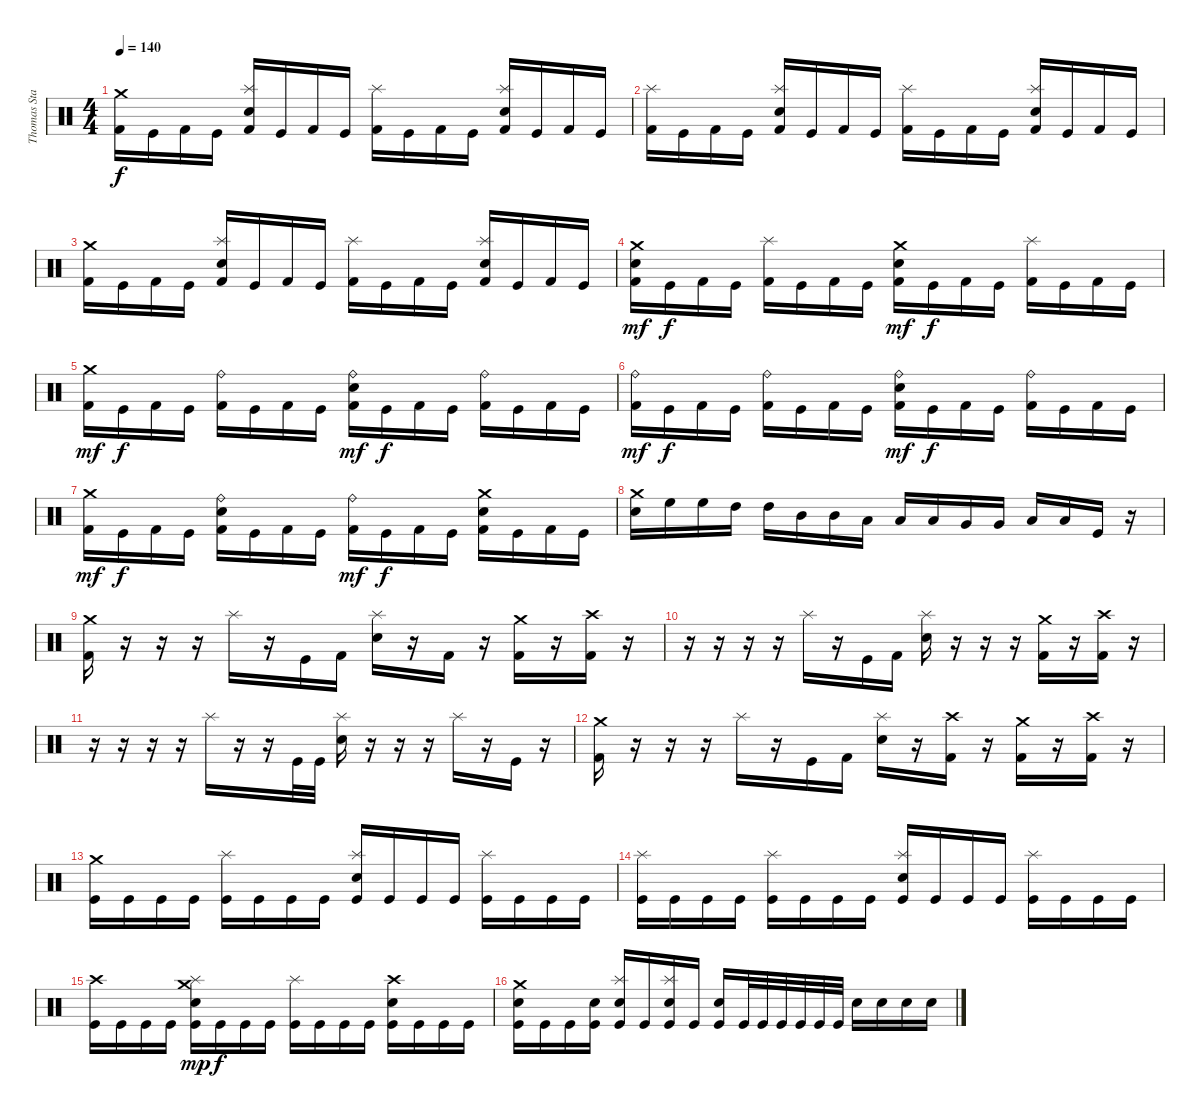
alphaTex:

\track ("Thomas Stauch" "Thomas Sta") {instrument percussion}
\staff {score}
\articulation defaults
\ts (4 4)
\tempo 140
\clef neutral
\ks c
("Crash medium (hit)" "Kick (hit) 2").16{dy f} "Kick (hit)".16 "Kick (hit) 2".16 "Kick (hit)".16 ("Splash (hit)" "Electric Snare (hit)" "Kick (hit) 2").16 "Kick (hit)".16 "Kick (hit) 2".16 "Kick (hit)".16 ("Splash (hit)" "Kick (hit) 2").16 "Kick (hit)".16 "Kick (hit) 2".16 "Kick (hit)".16 ("Splash (hit)" "Electric Snare (hit)" "Kick (hit) 2").16 "Kick (hit)".16 "Kick (hit) 2".16 "Kick (hit)".16 |
("Splash (hit)" "Kick (hit) 2").16 "Kick (hit)".16 "Kick (hit) 2".16 "Kick (hit)".16 ("Splash (hit)" "Electric Snare (hit)" "Kick (hit) 2").16 "Kick (hit)".16 "Kick (hit) 2".16 "Kick (hit)".16 ("Splash (hit)" "Kick (hit) 2").16 "Kick (hit)".16 "Kick (hit) 2".16 "Kick (hit)".16 ("Splash (hit)" "Electric Snare (hit)" "Kick (hit) 2").16 "Kick (hit)".16 "Kick (hit) 2".16 "Kick (hit)".16 |
("Crash medium (hit)" "Kick (hit) 2").16 "Kick (hit)".16 "Kick (hit) 2".16 "Kick (hit)".16 ("Splash (hit)" "Electric Snare (hit)" "Kick (hit) 2").16 "Kick (hit)".16 "Kick (hit) 2".16 "Kick (hit)".16 ("Splash (hit)" "Kick (hit) 2").16 "Kick (hit)".16 "Kick (hit) 2".16 "Kick (hit)".16 ("Splash (hit)" "Electric Snare (hit)" "Kick (hit) 2").16 "Kick (hit)".16 "Kick (hit) 2".16 "Kick (hit)".16 |
("Crash medium (hit)" "Electric Snare (hit)" "Kick (hit) 2").16{dy mf} "Kick (hit)".16{dy f} "Kick (hit) 2".16 "Kick (hit)".16 ("Splash (hit)" "Kick (hit) 2").16 "Kick (hit)".16 "Kick (hit) 2".16 "Kick (hit)".16 ("Crash medium (hit)" "Electric Snare (hit)" "Kick (hit) 2").16{dy mf} "Kick (hit)".16{dy f} "Kick (hit) 2".16 "Kick (hit)".16 ("Splash (hit)" "Kick (hit) 2").16 "Kick (hit)".16 "Kick (hit) 2".16 "Kick (hit)".16 |
("Crash medium (hit)" "Kick (hit) 2").16{dy mf} "Kick (hit)".16{dy f} "Kick (hit) 2".16 "Kick (hit)".16 ("Ride (bell)" "Kick (hit) 2").16 "Kick (hit)".16 "Kick (hit) 2".16 "Kick (hit)".16 ("Ride (bell)" "Electric Snare (hit)" "Kick (hit) 2").16{dy mf} "Kick (hit)".16{dy f} "Kick (hit) 2".16 "Kick (hit)".16 ("Ride (bell)" "Kick (hit) 2").16 "Kick (hit)".16 "Kick (hit) 2".16 "Kick (hit)".16 |
("Ride (bell)" "Kick (hit) 2").16{dy mf} "Kick (hit)".16{dy f} "Kick (hit) 2".16 "Kick (hit)".16 ("Ride (bell)" "Kick (hit) 2").16 "Kick (hit)".16 "Kick (hit) 2".16 "Kick (hit)".16 ("Ride (bell)" "Electric Snare (hit)" "Kick (hit) 2").16{dy mf} "Kick (hit)".16{dy f} "Kick (hit) 2".16 "Kick (hit)".16 ("Ride (bell)" "Kick (hit) 2").16 "Kick (hit)".16 "Kick (hit) 2".16 "Kick (hit)".16 |
("Crash medium (hit)" "Kick (hit) 2").16{dy mf} "Kick (hit)".16{dy f} "Kick (hit) 2".16 "Kick (hit)".16 ("Ride (bell)" "Electric Snare (hit)" "Kick (hit) 2").16 "Kick (hit)".16 "Kick (hit) 2".16 "Kick (hit)".16 ("Ride (bell)" "Kick (hit) 2").16{dy mf} "Kick (hit)".16{dy f} "Kick (hit) 2".16 "Kick (hit)".16 ("Crash medium (hit)" "Electric Snare (hit)" "Kick (hit) 2").16 "Kick (hit)".16 "Kick (hit) 2".16 "Kick (hit)".16 |
("Crash medium (hit)" "Electric Snare (hit)").16 "High Floor Tom (hit)".16 "High Floor Tom (hit)".16 "High Tom (hit)".16 "High Tom (hit)".16 "Mid Tom (hit)".16 "Mid Tom (hit)".16 "Low Tom (hit)".16 "Low Tom (hit)".16 "Low Tom (hit)".16 "Very Low Tom (hit)".16 "Very Low Tom (hit)".16 "Low Floor Tom (hit)".16 "Low Floor Tom (hit)".16 "Kick (hit)".16 r.16 |
("Crash medium (hit)" "Kick (hit) 2").16 r.16 r.16 r.16 "Splash (hit)".16 r.16 "Kick (hit)".16 "Kick (hit) 2".16 ("Splash (hit)" "Electric Snare (hit)").16 r.16 "Kick (hit) 2".16 r.16 ("Crash medium (hit)" "Kick (hit) 2").16 r.16 ("Crash high (hit)" "Kick (hit) 2").16 r.16 |
r.16 r.16 r.16 r.16 "Splash (hit)".16 r.16 "Kick (hit)".16 "Kick (hit) 2".16 ("Splash (hit)" "Electric Snare (hit)").16 r.16 r.16 r.16 ("Crash medium (hit)" "Kick (hit) 2").16 r.16 ("Crash high (hit)" "Kick (hit) 2").16 r.16 |
r.16 r.16 r.16 r.16 "Splash (hit)".16 r.16 r.16 "Kick (hit)".32 "Kick (hit)".32 ("Splash (hit)" "Electric Snare (hit)").16 r.16 r.16 r.16 "Splash (hit)".16 r.16 "Kick (hit)".16 r.16 |
("Crash medium (hit)" "Kick (hit) 2").16 r.16 r.16 r.16 "Splash (hit)".16 r.16 "Kick (hit)".16 "Kick (hit) 2".16 ("Splash (hit)" "Electric Snare (hit)").16 r.16 ("Crash high (hit)" "Kick (hit) 2").16 r.16 ("Crash medium (hit)" "Kick (hit) 2").16 r.16 ("Crash high (hit)" "Kick (hit) 2").16 r.16 |
("Crash medium (hit)" "Kick (hit)").16 "Kick (hit)".16 "Kick (hit)".16 "Kick (hit)".16 ("Splash (hit)" "Kick (hit)").16 "Kick (hit)".16 "Kick (hit)".16 "Kick (hit)".16 ("Splash (hit)" "Electric Snare (hit)" "Kick (hit)").16 "Kick (hit)".16 "Kick (hit)".16 "Kick (hit)".16 ("Splash (hit)" "Kick (hit)").16 "Kick (hit)".16 "Kick (hit)".16 "Kick (hit)".16 |
("Splash (hit)" "Kick (hit)").16 "Kick (hit)".16 "Kick (hit)".16 "Kick (hit)".16 ("Splash (hit)" "Kick (hit)").16 "Kick (hit)".16 "Kick (hit)".16 "Kick (hit)".16 ("Splash (hit)" "Electric Snare (hit)" "Kick (hit)").16 "Kick (hit)".16 "Kick (hit)".16 "Kick (hit)".16 ("Splash (hit)" "Kick (hit)").16 "Kick (hit)".16 "Kick (hit)".16 "Kick (hit)".16 |
("Crash high (hit)" "Kick (hit)").16 "Kick (hit)".16 "Kick (hit)".16 "Kick (hit)".16 ("Crash medium (hit)" "Splash (hit)" "Electric Snare (hit)" "Kick (hit)").16{dy mp} "Kick (hit)".16{dy f} "Kick (hit)".16 "Kick (hit)".16 ("Splash (hit)" "Kick (hit)").16 "Kick (hit)".16 "Kick (hit)".16 "Kick (hit)".16 ("Crash high (hit)" "Electric Snare (hit)" "Kick (hit)").16 "Kick (hit)".16 "Kick (hit)".16 "Kick (hit)".16 |
("Crash medium (hit)" "Electric Snare (hit)" "Kick (hit)").16 "Kick (hit)".16 "Kick (hit)".16 ("Electric Snare (hit)" "Kick (hit)").16 ("Splash (hit)" "Electric Snare (hit)" "Kick (hit)").16 "Kick (hit)".16 ("Splash (hit)" "Electric Snare (hit)" "Kick (hit)").16 "Kick (hit)".16 ("Electric Snare (hit)" "Kick (hit)").16 "Kick (hit)".32 "Kick (hit)".32 "Kick (hit)".32 "Kick (hit)".32 "Kick (hit)".32 "Kick (hit)".32 "Electric Snare (hit)".16 "Electric Snare (hit)".16 "Electric Snare (hit)".16 "Electric Snare (hit)".16
